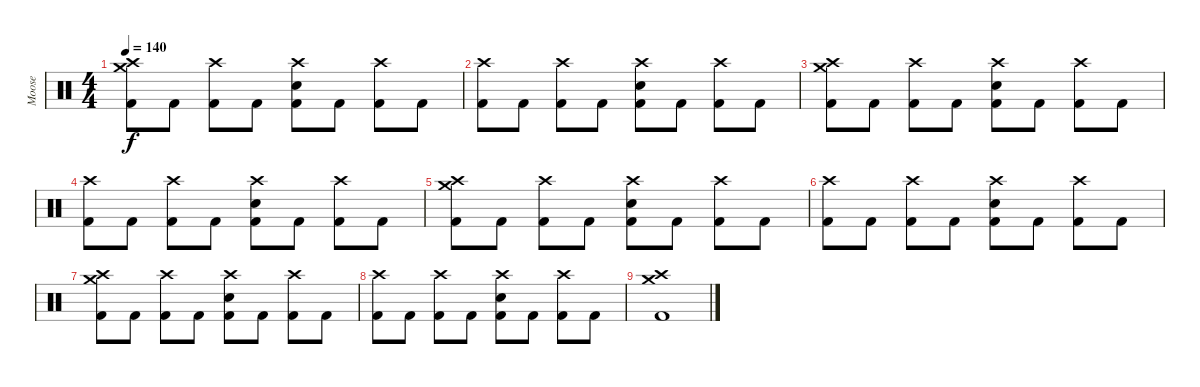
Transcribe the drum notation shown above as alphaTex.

\track ("Moose" "Moose") {instrument percussion}
\staff {score}
\articulation defaults
\ts (4 4)
\tempo 140
\clef neutral
\ks c
("Crash high (hit)" "Crash medium (hit)" "Kick (hit) 2").8{dy f} "Kick (hit) 2".8 ("Crash high (hit)" "Kick (hit) 2").8 "Kick (hit) 2".8 ("Crash high (hit)" "Snare (hit) 2" "Kick (hit) 2").8 "Kick (hit) 2".8 ("Crash high (hit)" "Kick (hit) 2").8 "Kick (hit) 2".8 |
("Crash high (hit)" "Kick (hit) 2").8 "Kick (hit) 2".8 ("Crash high (hit)" "Kick (hit) 2").8 "Kick (hit) 2".8 ("Crash high (hit)" "Snare (hit) 2" "Kick (hit) 2").8 "Kick (hit) 2".8 ("Crash high (hit)" "Kick (hit) 2").8 "Kick (hit) 2".8 |
("Crash high (hit)" "Crash medium (hit)" "Kick (hit) 2").8 "Kick (hit) 2".8 ("Crash high (hit)" "Kick (hit) 2").8 "Kick (hit) 2".8 ("Crash high (hit)" "Snare (hit) 2" "Kick (hit) 2").8 "Kick (hit) 2".8 ("Crash high (hit)" "Kick (hit) 2").8 "Kick (hit) 2".8 |
("Crash high (hit)" "Kick (hit) 2").8 "Kick (hit) 2".8 ("Crash high (hit)" "Kick (hit) 2").8 "Kick (hit) 2".8 ("Crash high (hit)" "Snare (hit) 2" "Kick (hit) 2").8 "Kick (hit) 2".8 ("Crash high (hit)" "Kick (hit) 2").8 "Kick (hit) 2".8 |
("Crash high (hit)" "Crash medium (hit)" "Kick (hit) 2").8 "Kick (hit) 2".8 ("Crash high (hit)" "Kick (hit) 2").8 "Kick (hit) 2".8 ("Crash high (hit)" "Snare (hit) 2" "Kick (hit) 2").8 "Kick (hit) 2".8 ("Crash high (hit)" "Kick (hit) 2").8 "Kick (hit) 2".8 |
("Crash high (hit)" "Kick (hit) 2").8 "Kick (hit) 2".8 ("Crash high (hit)" "Kick (hit) 2").8 "Kick (hit) 2".8 ("Crash high (hit)" "Snare (hit) 2" "Kick (hit) 2").8 "Kick (hit) 2".8 ("Crash high (hit)" "Kick (hit) 2").8 "Kick (hit) 2".8 |
("Crash high (hit)" "Crash medium (hit)" "Kick (hit) 2").8 "Kick (hit) 2".8 ("Crash high (hit)" "Kick (hit) 2").8 "Kick (hit) 2".8 ("Crash high (hit)" "Snare (hit) 2" "Kick (hit) 2").8 "Kick (hit) 2".8 ("Crash high (hit)" "Kick (hit) 2").8 "Kick (hit) 2".8 |
("Crash high (hit)" "Kick (hit) 2").8 "Kick (hit) 2".8 ("Crash high (hit)" "Kick (hit) 2").8 "Kick (hit) 2".8 ("Crash high (hit)" "Snare (hit) 2" "Kick (hit) 2").8 "Kick (hit) 2".8 ("Crash high (hit)" "Kick (hit) 2").8 "Kick (hit) 2".8 |
("Crash high (hit)" "Crash medium (hit)" "Kick (hit) 2").1
